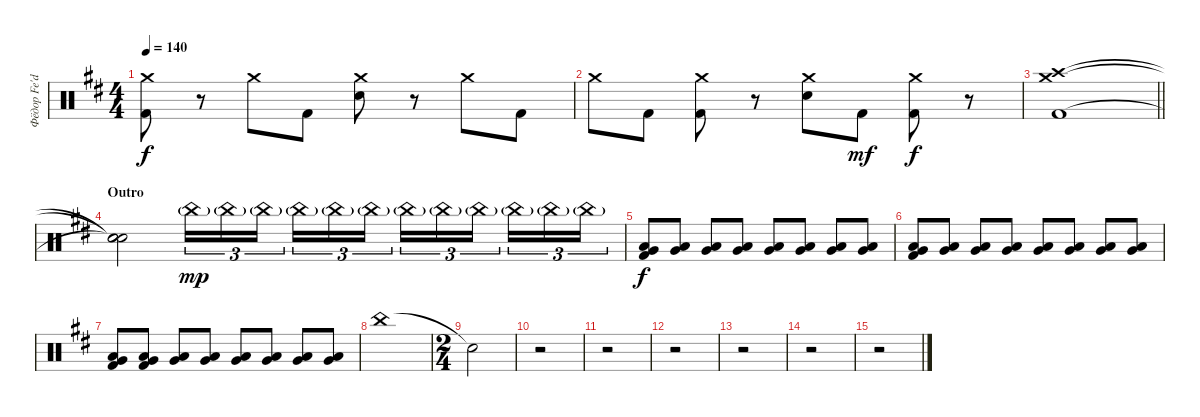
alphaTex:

\track ("Фёдор Fe'dor Локшин" "Фёдор Fe'd") {instrument percussion}
\staff {score}
\articulation defaults
\ts (4 4)
\tempo 140
\clef neutral
\ks bminor
("Crash medium (hit)" "Kick (hit) 2").8{dy f} r.8 "Crash medium (hit)".8 "Kick (hit) 2".8 ("Crash medium (hit)" "Snare (hit) 2").8 r.8 "Crash medium (hit)".8 "Kick (hit) 2".8 |
"Crash medium (hit)".8 "Kick (hit) 2".8 ("Crash medium (hit)" "Kick (hit) 2").8 r.8 ("Crash medium (hit)" "Snare (hit) 2").8 "Kick (hit) 2".8{dy mf} ("Crash medium (hit)" "Kick (hit) 2").8{dy f} r.8 |
\barLineRight lightlight
("Crash medium (hit)" "Crash high (hit)" "Kick (hit) 2").1 |
\section ("" "Outro")
("Snare (hit)"{t} "Snare (hit)"{t} "Snare (hit)"{t}).2 "China (hit)"{g}.16{tu (3 2) dy mp volume 2} "China (hit)"{g}.16{tu (3 2) volume 5} "China (hit)"{g}.16{tu (3 2) beam splitsecondary} "China (hit)"{g}.16{tu (3 2)} "China (hit)"{g}.16{tu (3 2)} "China (hit)"{g}.16{tu (3 2)} "China (hit)"{g}.16{tu (3 2)} "China (hit)"{g}.16{tu (3 2)} "China (hit)"{g}.16{tu (3 2) beam splitsecondary} "China (hit)"{g}.16{tu (3 2)} "China (hit)"{g}.16{tu (3 2)} "China (hit)"{g}.16{tu (3 2)} |
("Low Floor Tom (hit)" "Very Low Tom (hit)" "Kick (hit) 2").8{dy f} ("Low Floor Tom (hit)" "Very Low Tom (hit)").8 ("Low Floor Tom (hit)" "Very Low Tom (hit)").8 ("Low Floor Tom (hit)" "Very Low Tom (hit)").8 ("Low Floor Tom (hit)" "Very Low Tom (hit)").8 ("Low Floor Tom (hit)" "Very Low Tom (hit)").8 ("Low Floor Tom (hit)" "Very Low Tom (hit)").8 ("Low Floor Tom (hit)" "Very Low Tom (hit)").8 |
("Low Floor Tom (hit)" "Very Low Tom (hit)" "Kick (hit) 2").8 ("Low Floor Tom (hit)" "Very Low Tom (hit)").8 ("Low Floor Tom (hit)" "Very Low Tom (hit)").8 ("Low Floor Tom (hit)" "Very Low Tom (hit)").8 ("Low Floor Tom (hit)" "Very Low Tom (hit)").8 ("Low Floor Tom (hit)" "Very Low Tom (hit)").8 ("Low Floor Tom (hit)" "Very Low Tom (hit)").8{volume 12} ("Low Floor Tom (hit)" "Very Low Tom (hit)").8 |
("Low Floor Tom (hit)" "Very Low Tom (hit)" "Kick (hit) 2").8 ("Low Floor Tom (hit)" "Very Low Tom (hit)" "Kick (hit) 2").8 ("Low Floor Tom (hit)" "Very Low Tom (hit)").8 ("Low Floor Tom (hit)" "Very Low Tom (hit)").8 ("Low Floor Tom (hit)" "Very Low Tom (hit)").8 ("Low Floor Tom (hit)" "Very Low Tom (hit)").8 ("Low Floor Tom (hit)" "Very Low Tom (hit)").8 ("Low Floor Tom (hit)" "Very Low Tom (hit)").8 |
"China (hit)".1 |
\ts (2 4)
"Snare (hit)"{t}.2 |
r.2 |
r.2 |
r.2 |
r.2 |
r.2 |
r.2
